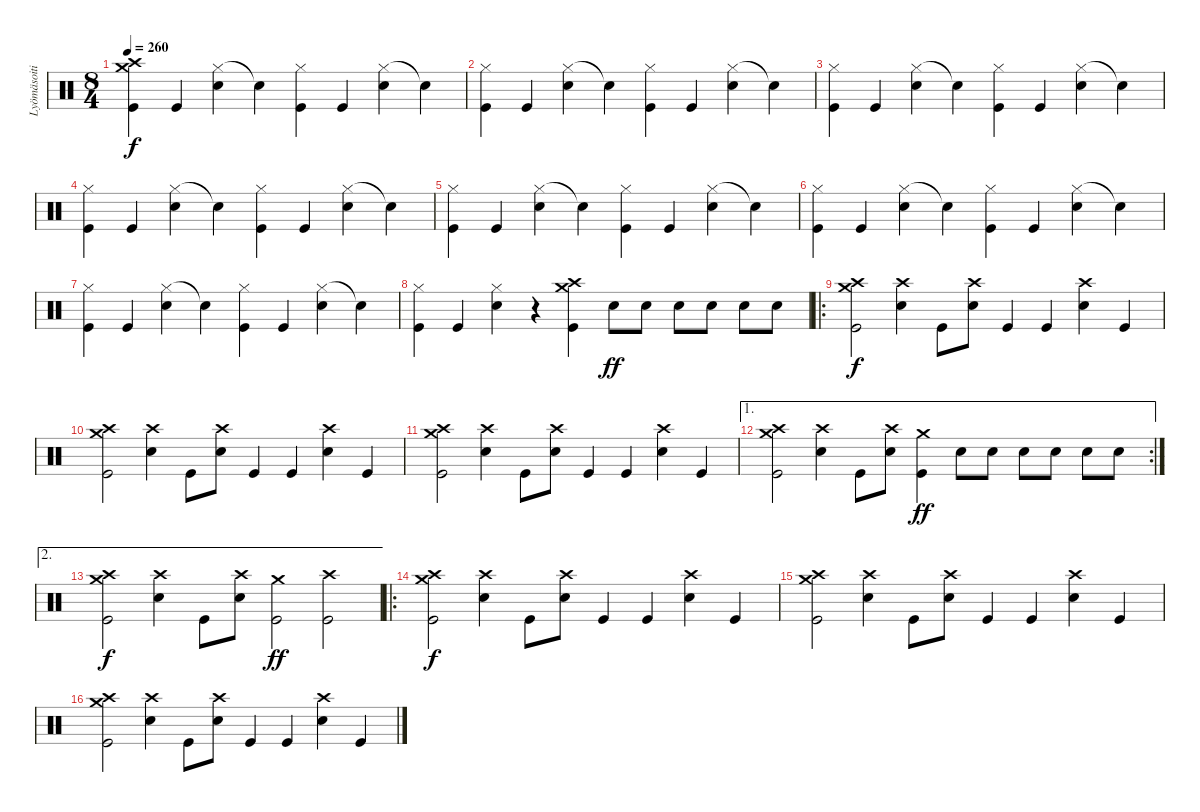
\track ("Lyömäsoitin" "Lyömäsoiti") {instrument percussion}
\staff {score}
\articulation defaults
\ts (8 4)
\tempo 260
\clef neutral
\ks c
("Crash medium (hit)" "Crash high (hit)" "Kick (hit)").4{dy f} "Kick (hit)".4 ("Hi-Hat (closed)" "Snare (hit) 2").4 "Snare (hit)"{t}.4 ("Hi-Hat (closed)" "Kick (hit)").4 "Kick (hit)".4 ("Hi-Hat (closed)" "Snare (hit) 2").4 "Snare (hit)"{t}.4 |
("Hi-Hat (closed)" "Kick (hit)").4 "Kick (hit)".4 ("Hi-Hat (closed)" "Snare (hit) 2").4 "Snare (hit)"{t}.4 ("Hi-Hat (closed)" "Kick (hit)").4 "Kick (hit)".4 ("Hi-Hat (closed)" "Snare (hit) 2").4 "Snare (hit)"{t}.4 |
("Hi-Hat (closed)" "Kick (hit)").4 "Kick (hit)".4 ("Hi-Hat (closed)" "Snare (hit) 2").4 "Snare (hit)"{t}.4 ("Hi-Hat (closed)" "Kick (hit)").4 "Kick (hit)".4 ("Hi-Hat (closed)" "Snare (hit) 2").4 "Snare (hit)"{t}.4 |
("Hi-Hat (closed)" "Kick (hit)").4 "Kick (hit)".4 ("Hi-Hat (closed)" "Snare (hit) 2").4 "Snare (hit)"{t}.4 ("Hi-Hat (closed)" "Kick (hit)").4 "Kick (hit)".4 ("Hi-Hat (closed)" "Snare (hit) 2").4 "Snare (hit)"{t}.4 |
("Hi-Hat (closed)" "Kick (hit)").4 "Kick (hit)".4 ("Hi-Hat (closed)" "Snare (hit) 2").4 "Snare (hit)"{t}.4 ("Hi-Hat (closed)" "Kick (hit)").4 "Kick (hit)".4 ("Hi-Hat (closed)" "Snare (hit) 2").4 "Snare (hit)"{t}.4 |
("Hi-Hat (closed)" "Kick (hit)").4 "Kick (hit)".4 ("Hi-Hat (closed)" "Snare (hit) 2").4 "Snare (hit)"{t}.4 ("Hi-Hat (closed)" "Kick (hit)").4 "Kick (hit)".4 ("Hi-Hat (closed)" "Snare (hit) 2").4 "Snare (hit)"{t}.4 |
("Hi-Hat (closed)" "Kick (hit)").4 "Kick (hit)".4 ("Hi-Hat (closed)" "Snare (hit) 2").4 "Snare (hit)"{t}.4 ("Hi-Hat (closed)" "Kick (hit)").4 "Kick (hit)".4 ("Hi-Hat (closed)" "Snare (hit) 2").4 "Snare (hit)"{t}.4 |
("Hi-Hat (closed)" "Kick (hit)").4 "Kick (hit)".4 ("Hi-Hat (closed)" "Snare (hit) 2").4 r.4 ("Crash medium (hit)" "Crash high (hit)" "Kick (hit)").4 "Snare (hit) 2".8{dy ff} "Snare (hit) 2".8 "Snare (hit) 2".8 "Snare (hit) 2".8 "Snare (hit) 2".8 "Snare (hit) 2".8 |
\ro
("Crash medium (hit)" "Crash high (hit)" "Kick (hit)").2{dy f} ("Crash high (hit)" "Snare (hit) 2").4 "Kick (hit)".8 ("Crash high (hit)" "Snare (hit) 2").8 "Kick (hit)".4 "Kick (hit)".4 ("Crash high (hit)" "Snare (hit) 2").4 "Kick (hit)".4 |
("Crash medium (hit)" "Crash high (hit)" "Kick (hit)").2 ("Crash high (hit)" "Snare (hit) 2").4 "Kick (hit)".8 ("Crash high (hit)" "Snare (hit) 2").8 "Kick (hit)".4 "Kick (hit)".4 ("Crash high (hit)" "Snare (hit) 2").4 "Kick (hit)".4 |
("Crash medium (hit)" "Crash high (hit)" "Kick (hit)").2 ("Crash high (hit)" "Snare (hit) 2").4 "Kick (hit)".8 ("Crash high (hit)" "Snare (hit) 2").8 "Kick (hit)".4 "Kick (hit)".4 ("Crash high (hit)" "Snare (hit) 2").4 "Kick (hit)".4 |
\ae 1
\rc 2
("Crash medium (hit)" "Crash high (hit)" "Kick (hit)").2 ("Crash high (hit)" "Snare (hit) 2").4 "Kick (hit)".8 ("Crash high (hit)" "Snare (hit) 2").8 ("Crash medium (hit)" "Kick (hit)").4{dy ff} "Snare (hit) 2".8 "Snare (hit) 2".8 "Snare (hit) 2".8 "Snare (hit) 2".8 "Snare (hit) 2".8 "Snare (hit) 2".8 |
\ae 2
("Crash medium (hit)" "Crash high (hit)" "Kick (hit)").2{dy f} ("Crash high (hit)" "Snare (hit) 2").4 "Kick (hit)".8 ("Crash high (hit)" "Snare (hit) 2").8 ("Crash medium (hit)" "Kick (hit)").2{dy ff} ("Crash high (hit)" "Kick (hit)").2 |
\ro
("Crash medium (hit)" "Crash high (hit)" "Kick (hit)").2{dy f} ("Crash high (hit)" "Snare (hit) 2").4 "Kick (hit)".8 ("Crash high (hit)" "Snare (hit) 2").8 "Kick (hit)".4 "Kick (hit)".4 ("Crash high (hit)" "Snare (hit) 2").4 "Kick (hit)".4 |
("Crash medium (hit)" "Crash high (hit)" "Kick (hit)").2 ("Crash high (hit)" "Snare (hit) 2").4 "Kick (hit)".8 ("Crash high (hit)" "Snare (hit) 2").8 "Kick (hit)".4 "Kick (hit)".4 ("Crash high (hit)" "Snare (hit) 2").4 "Kick (hit)".4 |
("Crash medium (hit)" "Crash high (hit)" "Kick (hit)").2 ("Crash high (hit)" "Snare (hit) 2").4 "Kick (hit)".8 ("Crash high (hit)" "Snare (hit) 2").8 "Kick (hit)".4 "Kick (hit)".4 ("Crash high (hit)" "Snare (hit) 2").4 "Kick (hit)".4
